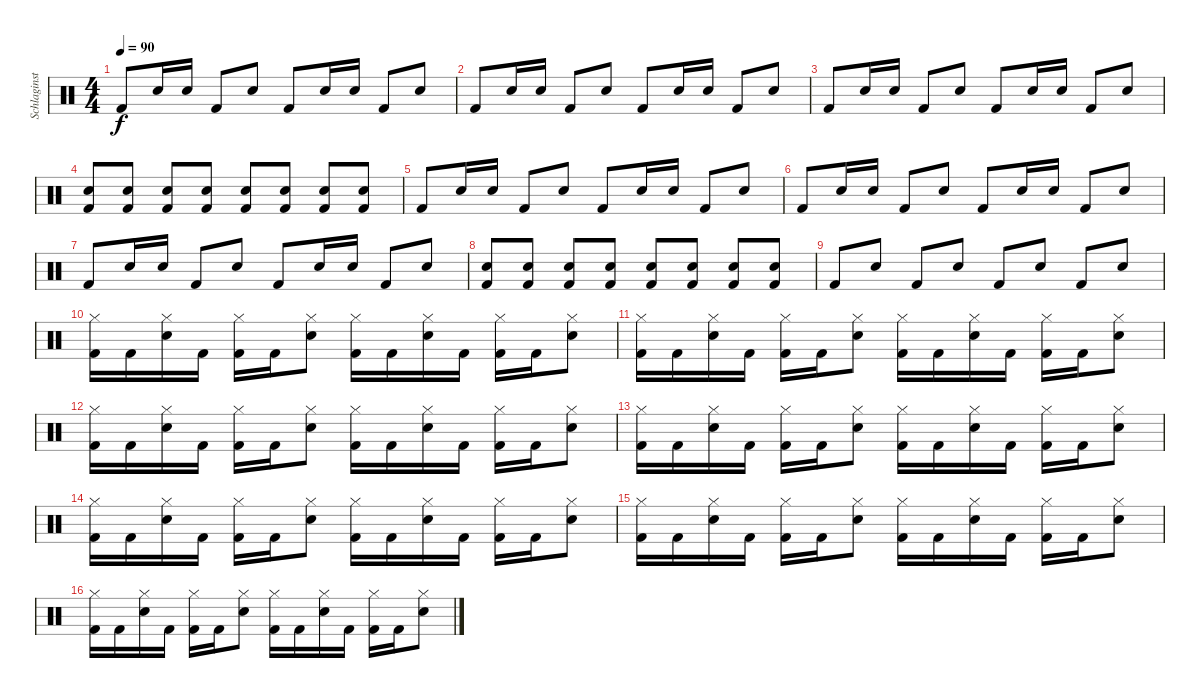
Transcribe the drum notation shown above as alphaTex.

\track ("Schlaginstrumente - Auswahl" "Schlaginst") {instrument percussion}
\staff {score}
\articulation defaults
\ts (4 4)
\tempo 90
\clef neutral
\ks c "Kick (hit) 2".8{dy f} "Snare (hit) 2".16 "Snare (hit) 2".16 "Kick (hit) 2".8 "Snare (hit) 2".8 "Kick (hit) 2".8 "Snare (hit) 2".16 "Snare (hit) 2".16 "Kick (hit) 2".8 "Snare (hit) 2".8
|
"Kick (hit) 2".8 "Snare (hit) 2".16 "Snare (hit) 2".16 "Kick (hit) 2".8 "Snare (hit) 2".8 "Kick (hit) 2".8 "Snare (hit) 2".16 "Snare (hit) 2".16 "Kick (hit) 2".8 "Snare (hit) 2".8 |
"Kick (hit) 2".8 "Snare (hit) 2".16 "Snare (hit) 2".16 "Kick (hit) 2".8 "Snare (hit) 2".8 "Kick (hit) 2".8 "Snare (hit) 2".16 "Snare (hit) 2".16 "Kick (hit) 2".8 "Snare (hit) 2".8 |
("Snare (hit) 2" "Kick (hit) 2").8 ("Snare (hit) 2" "Kick (hit) 2").8 ("Snare (hit) 2" "Kick (hit) 2").8 ("Snare (hit) 2" "Kick (hit) 2").8 ("Snare (hit) 2" "Kick (hit) 2").8 ("Snare (hit) 2" "Kick (hit) 2").8 ("Snare (hit) 2" "Kick (hit) 2").8 ("Snare (hit) 2" "Kick (hit) 2").8 |
"Kick (hit) 2".8 "Snare (hit) 2".16 "Snare (hit) 2".16 "Kick (hit) 2".8 "Snare (hit) 2".8 "Kick (hit) 2".8 "Snare (hit) 2".16 "Snare (hit) 2".16 "Kick (hit) 2".8 "Snare (hit) 2".8 |
"Kick (hit) 2".8 "Snare (hit) 2".16 "Snare (hit) 2".16 "Kick (hit) 2".8 "Snare (hit) 2".8 "Kick (hit) 2".8 "Snare (hit) 2".16 "Snare (hit) 2".16 "Kick (hit) 2".8 "Snare (hit) 2".8 |
"Kick (hit) 2".8 "Snare (hit) 2".16 "Snare (hit) 2".16 "Kick (hit) 2".8 "Snare (hit) 2".8 "Kick (hit) 2".8 "Snare (hit) 2".16 "Snare (hit) 2".16 "Kick (hit) 2".8 "Snare (hit) 2".8 |
("Snare (hit) 2" "Kick (hit) 2").8 ("Snare (hit) 2" "Kick (hit) 2").8 ("Snare (hit) 2" "Kick (hit) 2").8 ("Snare (hit) 2" "Kick (hit) 2").8 ("Snare (hit) 2" "Kick (hit) 2").8 ("Snare (hit) 2" "Kick (hit) 2").8 ("Snare (hit) 2" "Kick (hit) 2").8 ("Snare (hit) 2" "Kick (hit) 2").8 |
"Kick (hit) 2".8 "Snare (hit) 2".8 "Kick (hit) 2".8 "Snare (hit) 2".8 "Kick (hit) 2".8 "Snare (hit) 2".8 "Kick (hit) 2".8 "Snare (hit) 2".8 |
("Kick (hit) 2" "Hi-Hat (closed)").16 "Kick (hit) 2".16 ("Snare (hit) 2" "Hi-Hat (closed)").16 "Kick (hit) 2".16 ("Kick (hit) 2" "Hi-Hat (closed)").16 "Kick (hit) 2".16 ("Snare (hit) 2" "Hi-Hat (closed)").8 ("Kick (hit) 2" "Hi-Hat (closed)").16 "Kick (hit) 2".16 ("Snare (hit) 2" "Hi-Hat (closed)").16 "Kick (hit) 2".16 ("Kick (hit) 2" "Hi-Hat (closed)").16 "Kick (hit) 2".16 ("Snare (hit) 2" "Hi-Hat (closed)").8 |
("Kick (hit) 2" "Hi-Hat (closed)").16 "Kick (hit) 2".16 ("Snare (hit) 2" "Hi-Hat (closed)").16 "Kick (hit) 2".16 ("Kick (hit) 2" "Hi-Hat (closed)").16 "Kick (hit) 2".16 ("Snare (hit) 2" "Hi-Hat (closed)").8 ("Kick (hit) 2" "Hi-Hat (closed)").16 "Kick (hit) 2".16 ("Snare (hit) 2" "Hi-Hat (closed)").16 "Kick (hit) 2".16 ("Kick (hit) 2" "Hi-Hat (closed)").16 "Kick (hit) 2".16 ("Snare (hit) 2" "Hi-Hat (closed)").8 |
("Kick (hit) 2" "Hi-Hat (closed)").16 "Kick (hit) 2".16 ("Snare (hit) 2" "Hi-Hat (closed)").16 "Kick (hit) 2".16 ("Kick (hit) 2" "Hi-Hat (closed)").16 "Kick (hit) 2".16 ("Snare (hit) 2" "Hi-Hat (closed)").8 ("Kick (hit) 2" "Hi-Hat (closed)").16 "Kick (hit) 2".16 ("Snare (hit) 2" "Hi-Hat (closed)").16 "Kick (hit) 2".16 ("Kick (hit) 2" "Hi-Hat (closed)").16 "Kick (hit) 2".16 ("Snare (hit) 2" "Hi-Hat (closed)").8 |
("Kick (hit) 2" "Hi-Hat (closed)").16 "Kick (hit) 2".16 ("Snare (hit) 2" "Hi-Hat (closed)").16 "Kick (hit) 2".16 ("Kick (hit) 2" "Hi-Hat (closed)").16 "Kick (hit) 2".16 ("Snare (hit) 2" "Hi-Hat (closed)").8 ("Kick (hit) 2" "Hi-Hat (closed)").16 "Kick (hit) 2".16 ("Snare (hit) 2" "Hi-Hat (closed)").16 "Kick (hit) 2".16 ("Kick (hit) 2" "Hi-Hat (closed)").16 "Kick (hit) 2".16 ("Snare (hit) 2" "Hi-Hat (closed)").8 |
("Kick (hit) 2" "Hi-Hat (closed)").16 "Kick (hit) 2".16 ("Snare (hit) 2" "Hi-Hat (closed)").16 "Kick (hit) 2".16 ("Kick (hit) 2" "Hi-Hat (closed)").16 "Kick (hit) 2".16 ("Snare (hit) 2" "Hi-Hat (closed)").8 ("Kick (hit) 2" "Hi-Hat (closed)").16 "Kick (hit) 2".16 ("Snare (hit) 2" "Hi-Hat (closed)").16 "Kick (hit) 2".16 ("Kick (hit) 2" "Hi-Hat (closed)").16 "Kick (hit) 2".16 ("Snare (hit) 2" "Hi-Hat (closed)").8 |
("Kick (hit) 2" "Hi-Hat (closed)").16 "Kick (hit) 2".16 ("Snare (hit) 2" "Hi-Hat (closed)").16 "Kick (hit) 2".16 ("Kick (hit) 2" "Hi-Hat (closed)").16 "Kick (hit) 2".16 ("Snare (hit) 2" "Hi-Hat (closed)").8 ("Kick (hit) 2" "Hi-Hat (closed)").16 "Kick (hit) 2".16 ("Snare (hit) 2" "Hi-Hat (closed)").16 "Kick (hit) 2".16 ("Kick (hit) 2" "Hi-Hat (closed)").16 "Kick (hit) 2".16 ("Snare (hit) 2" "Hi-Hat (closed)").8 |
("Kick (hit) 2" "Hi-Hat (closed)").16 "Kick (hit) 2".16 ("Snare (hit) 2" "Hi-Hat (closed)").16 "Kick (hit) 2".16 ("Kick (hit) 2" "Hi-Hat (closed)").16 "Kick (hit) 2".16 ("Snare (hit) 2" "Hi-Hat (closed)").8 ("Kick (hit) 2" "Hi-Hat (closed)").16 "Kick (hit) 2".16 ("Snare (hit) 2" "Hi-Hat (closed)").16 "Kick (hit) 2".16 ("Kick (hit) 2" "Hi-Hat (closed)").16 "Kick (hit) 2".16 ("Snare (hit) 2" "Hi-Hat (closed)").8
